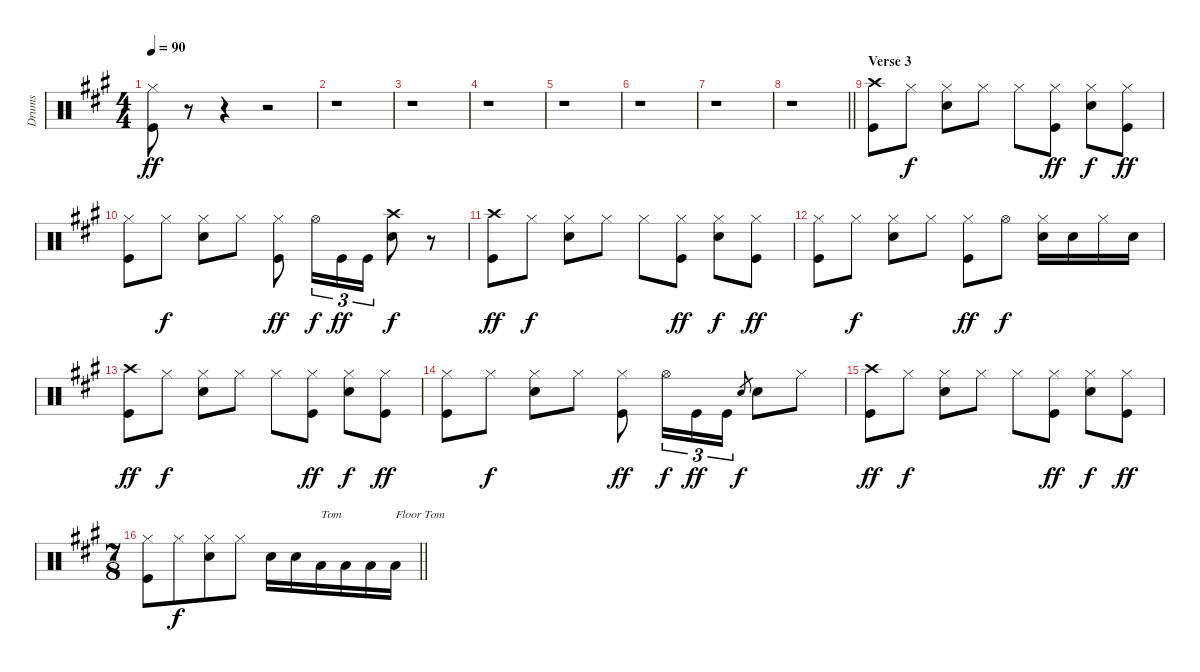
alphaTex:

\track ("Drums" "Drums") {instrument percussion}
\staff {score}
\articulation defaults
\ts (4 4)
\tempo 90
\clef neutral
\ks a
("Hi-Hat (closed)" "Kick (hit)").8{dy ff} r.8 r.4 r.2 |
r.1 |
r.1 |
r.1 |
r.1 |
r.1 |
r.1 |
\barLineRight lightlight
r.1 |
\section ("" "Verse 3")
("Crash high (hit)" "Kick (hit)").8 "Hi-Hat (closed)".8{dy f} ("Hi-Hat (closed)" "Snare (hit) 2").8 "Hi-Hat (closed)".8 "Hi-Hat (closed)".8 ("Hi-Hat (closed)" "Kick (hit)").8{dy ff} ("Hi-Hat (closed)" "Snare (hit) 2").8{dy f} ("Hi-Hat (closed)" "Kick (hit)").8{dy ff} |
("Hi-Hat (closed)" "Kick (hit)").8 "Hi-Hat (closed)".8{dy f} ("Hi-Hat (closed)" "Snare (hit) 2").8 "Hi-Hat (closed)".8 ("Hi-Hat (closed)" "Kick (hit)").8{dy ff} "Hi-Hat (open)".16{tu (3 2) dy f} "Kick (hit)".16{tu (3 2) dy ff} "Kick (hit)".16{tu (3 2)} ("Crash high (hit)" "Snare (hit) 2").8{dy f} r.8 |
("Crash high (hit)" "Kick (hit)").8{dy ff} "Hi-Hat (closed)".8{dy f} ("Hi-Hat (closed)" "Snare (hit) 2").8 "Hi-Hat (closed)".8 "Hi-Hat (closed)".8 ("Hi-Hat (closed)" "Kick (hit)").8{dy ff} ("Hi-Hat (closed)" "Snare (hit) 2").8{dy f} ("Hi-Hat (closed)" "Kick (hit)").8{dy ff} |
("Hi-Hat (closed)" "Kick (hit)").8 "Hi-Hat (closed)".8{dy f} ("Hi-Hat (closed)" "Snare (hit) 2").8 "Hi-Hat (closed)".8 ("Hi-Hat (closed)" "Kick (hit)").8{dy ff} "Hi-Hat (open)".8{dy f} ("Hi-Hat (closed)" "Snare (hit) 2").16 "Snare (hit) 2".16 "Hi-Hat (closed)".16 "Snare (hit) 2".16 |
("Crash high (hit)" "Kick (hit)").8{dy ff} "Hi-Hat (closed)".8{dy f} ("Hi-Hat (closed)" "Snare (hit) 2").8 "Hi-Hat (closed)".8 "Hi-Hat (closed)".8 ("Hi-Hat (closed)" "Kick (hit)").8{dy ff} ("Hi-Hat (closed)" "Snare (hit) 2").8{dy f} ("Hi-Hat (closed)" "Kick (hit)").8{dy ff} |
("Hi-Hat (closed)" "Kick (hit)").8 "Hi-Hat (closed)".8{dy f} ("Hi-Hat (closed)" "Snare (hit) 2").8 "Hi-Hat (closed)".8 ("Hi-Hat (closed)" "Kick (hit)").8{dy ff} "Hi-Hat (open)".16{tu (3 2) dy f} "Kick (hit)".16{tu (3 2) dy ff} "Kick (hit)".16{tu (3 2)} "Snare (hit) 2".8{gr dy f} "Snare (hit) 2".8 "Hi-Hat (closed)".8 |
("Crash high (hit)" "Kick (hit)").8{dy ff} "Hi-Hat (closed)".8{dy f} ("Hi-Hat (closed)" "Snare (hit) 2").8 "Hi-Hat (closed)".8 "Hi-Hat (closed)".8 ("Hi-Hat (closed)" "Kick (hit)").8{dy ff} ("Hi-Hat (closed)" "Snare (hit) 2").8{dy f} ("Hi-Hat (closed)" "Kick (hit)").8{dy ff} |
\ts (7 8)
\barLineRight lightlight
("Hi-Hat (closed)" "Kick (hit)").8 "Hi-Hat (closed)".8{dy f} ("Hi-Hat (closed)" "Snare (hit) 2").8 "Hi-Hat (closed)".8 "Snare (hit) 2".16 "Snare (hit) 2".16 "Low Tom (hit)".16{txt "Tom"} "Low Tom (hit)".16 "Low Floor Tom (hit)".16 "Low Floor Tom (hit)".16{txt "Floor Tom"}
